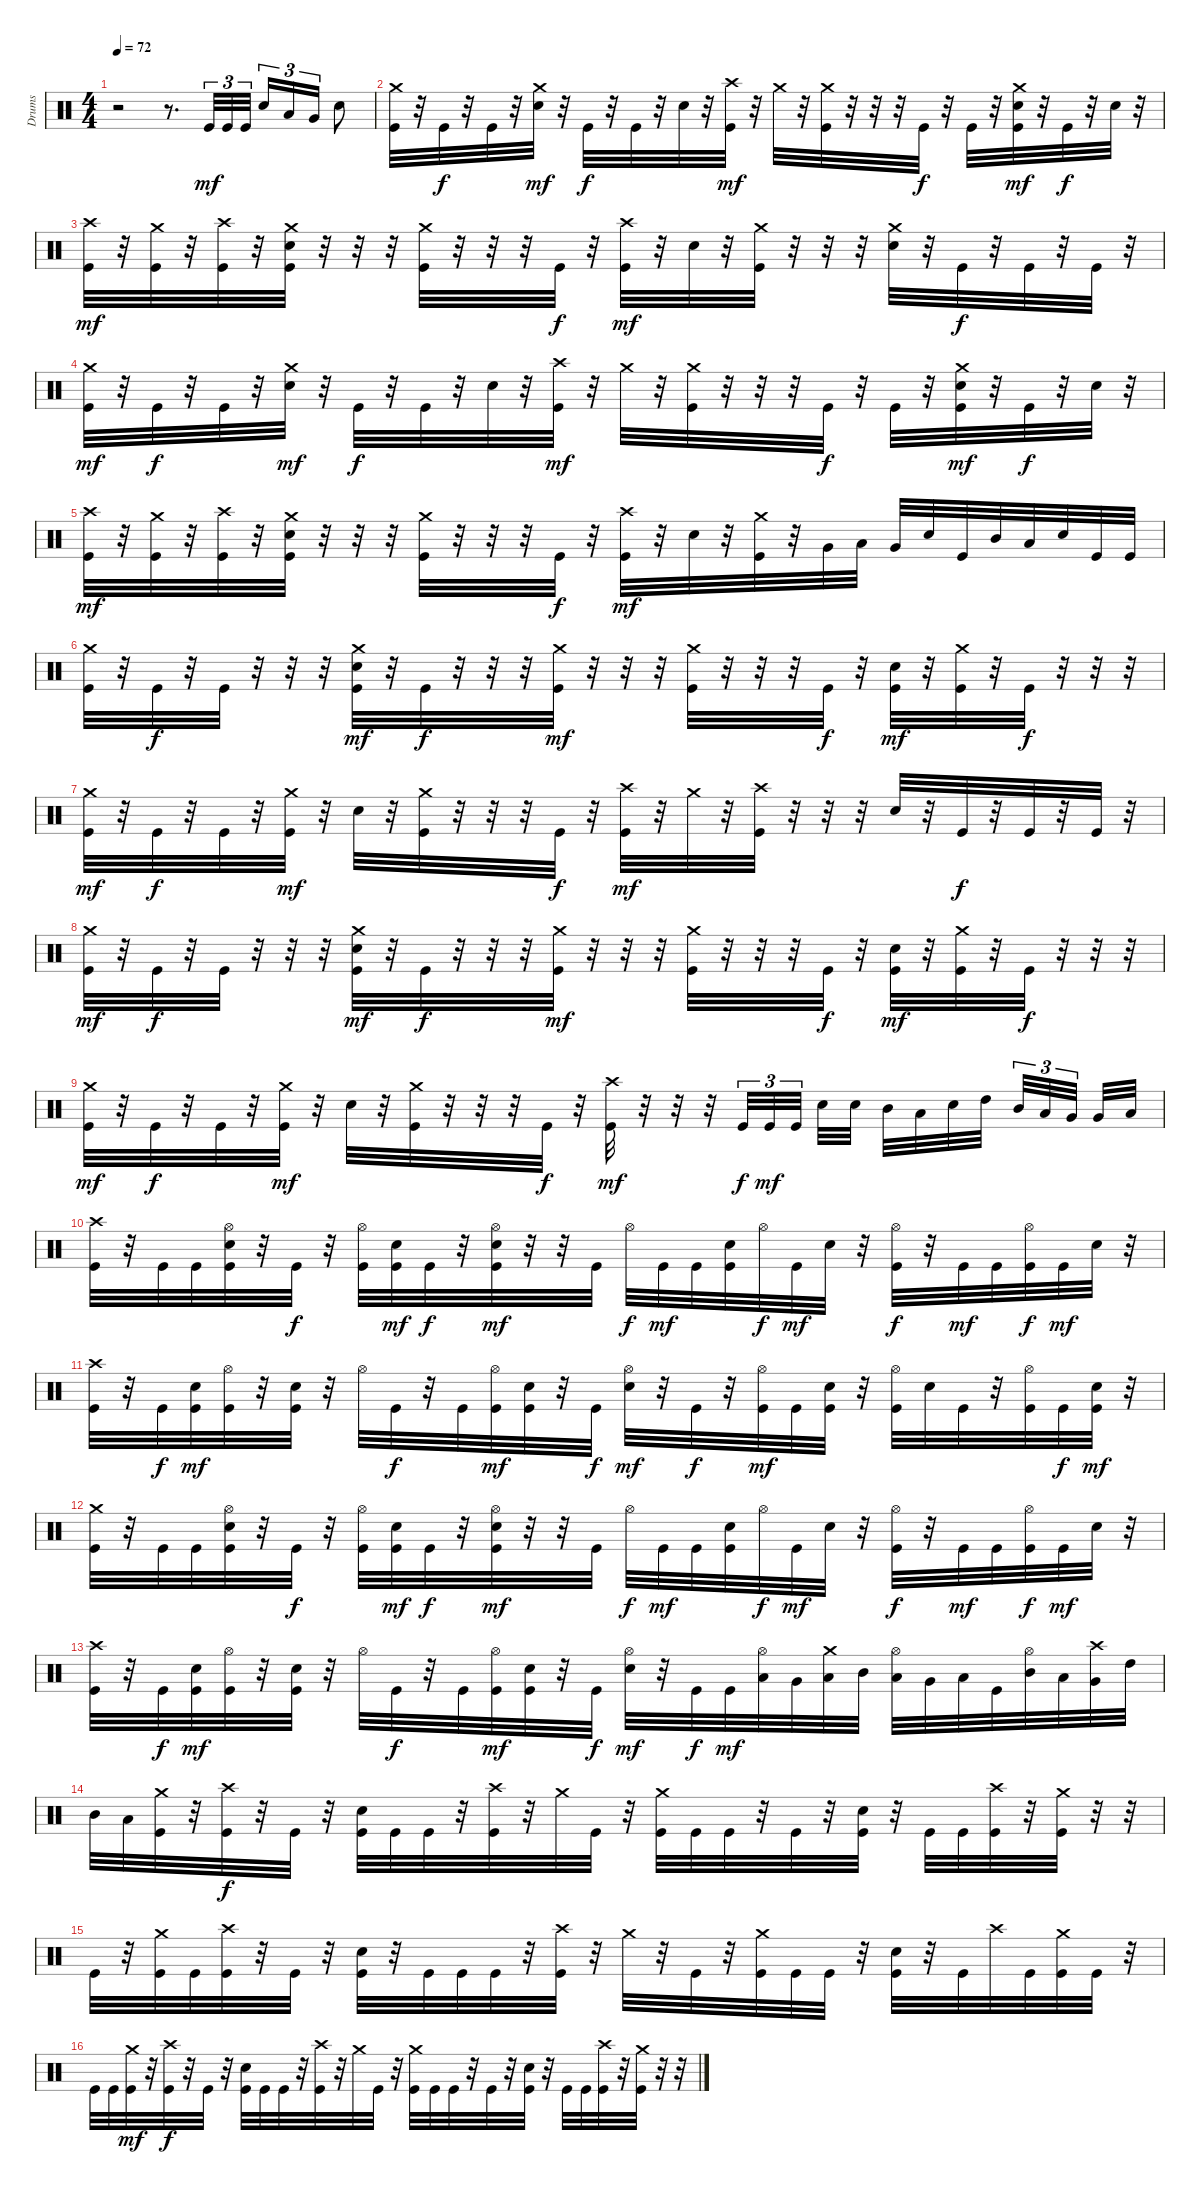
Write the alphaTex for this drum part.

\track ("Drums" "Drums") {instrument percussion}
\staff {score}
\articulation defaults
\ts (4 4)
\tempo 72
\clef neutral
\ks c
r.2{dy mf} r.8{d} "Kick (hit)".32{tu (3 2)} "Kick (hit)".32{tu (3 2)} "Kick (hit)".32{tu (3 2)} "Electric Snare (hit)".16{tu (3 2)} "Low Tom (hit)".16{tu (3 2)} "Very Low Tom (hit)".16{tu (3 2)} "Electric Snare (hit)".8 |
("Crash medium (hit)" "Kick (hit)").32 r.32 "Kick (hit)".32{dy f} r.32 "Kick (hit)".32 r.32 ("Crash medium (hit)" "Electric Snare (hit)").32{dy mf} r.32 "Kick (hit)".32{dy f} r.32 "Kick (hit)".32 r.32 "Electric Snare (hit)".32 r.32 ("Crash high (hit)" "Kick (hit)").32{dy mf} r.32 "Crash medium (hit)".32 r.32 ("Crash medium (hit)" "Kick (hit)").32 r.32 r.32 r.32 "Kick (hit)".32{dy f} r.32 "Kick (hit)".32 r.32 ("Crash medium (hit)" "Electric Snare (hit)" "Kick (hit)").32{dy mf} r.32 "Kick (hit)".32{dy f} r.32 "Electric Snare (hit)".32 r.32 |
("Crash high (hit)" "Kick (hit)").32{dy mf} r.32 ("Crash medium (hit)" "Kick (hit)").32 r.32 ("Crash high (hit)" "Kick (hit)").32 r.32 ("Crash medium (hit)" "Electric Snare (hit)" "Kick (hit)").32 r.32 r.32 r.32 ("Crash medium (hit)" "Kick (hit)").32 r.32 r.32 r.32 "Kick (hit)".32{dy f} r.32 ("Crash high (hit)" "Kick (hit)").32{dy mf} r.32 "Electric Snare (hit)".32 r.32 ("Crash medium (hit)" "Kick (hit)").32 r.32 r.32 r.32 ("Crash medium (hit)" "Electric Snare (hit)").32 r.32 "Kick (hit)".32{dy f} r.32 "Kick (hit)".32 r.32 "Kick (hit)".32 r.32 |
("Crash medium (hit)" "Kick (hit)").32{dy mf} r.32 "Kick (hit)".32{dy f} r.32 "Kick (hit)".32 r.32 ("Crash medium (hit)" "Electric Snare (hit)").32{dy mf} r.32 "Kick (hit)".32{dy f} r.32 "Kick (hit)".32 r.32 "Electric Snare (hit)".32 r.32 ("Crash high (hit)" "Kick (hit)").32{dy mf} r.32 "Crash medium (hit)".32 r.32 ("Crash medium (hit)" "Kick (hit)").32 r.32 r.32 r.32 "Kick (hit)".32{dy f} r.32 "Kick (hit)".32 r.32 ("Crash medium (hit)" "Electric Snare (hit)" "Kick (hit)").32{dy mf} r.32 "Kick (hit)".32{dy f} r.32 "Electric Snare (hit)".32 r.32 |
("Crash high (hit)" "Kick (hit)").32{dy mf} r.32 ("Crash medium (hit)" "Kick (hit)").32 r.32 ("Crash high (hit)" "Kick (hit)").32 r.32 ("Crash medium (hit)" "Electric Snare (hit)" "Kick (hit)").32 r.32 r.32 r.32 ("Crash medium (hit)" "Kick (hit)").32 r.32 r.32 r.32 "Kick (hit)".32{dy f} r.32 ("Crash high (hit)" "Kick (hit)").32{dy mf} r.32 "Electric Snare (hit)".32 r.32 ("Crash medium (hit)" "Kick (hit)").32 r.32 "Very Low Tom (hit)".32 "Low Tom (hit)".32 "Very Low Tom (hit)".32 "Electric Snare (hit)".32 "Kick (hit)".32 "Mid Tom (hit)".32 "Low Tom (hit)".32 "Electric Snare (hit)".32 "Kick (hit)".32 "Kick (hit)".32 |
("Crash medium (hit)" "Kick (hit)").32 r.32 "Kick (hit)".32{dy f} r.32 "Kick (hit)".32 r.32 r.32 r.32 ("Crash medium (hit)" "Electric Snare (hit)" "Kick (hit)").32{dy mf} r.32 "Kick (hit)".32{dy f} r.32 r.32 r.32 ("Crash medium (hit)" "Kick (hit)").32{dy mf} r.32 r.32 r.32 ("Crash medium (hit)" "Kick (hit)").32 r.32 r.32 r.32 "Kick (hit)".32{dy f} r.32 ("Electric Snare (hit)" "Kick (hit)").32{dy mf} r.32 ("Crash medium (hit)" "Kick (hit)").32 r.32 "Kick (hit)".32{dy f} r.32 r.32 r.32 |
("Crash medium (hit)" "Kick (hit)").32{dy mf} r.32 "Kick (hit)".32{dy f} r.32 "Kick (hit)".32 r.32 ("Crash medium (hit)" "Kick (hit)").32{dy mf} r.32 "Electric Snare (hit)".32 r.32 ("Crash medium (hit)" "Kick (hit)").32 r.32 r.32 r.32 "Kick (hit)".32{dy f} r.32 ("Crash high (hit)" "Kick (hit)").32{dy mf} r.32 "Crash medium (hit)".32 r.32 ("Crash high (hit)" "Kick (hit)").32 r.32 r.32 r.32 "Electric Snare (hit)".32 r.32 "Kick (hit)".32{dy f} r.32 "Kick (hit)".32 r.32 "Kick (hit)".32 r.32 |
("Crash medium (hit)" "Kick (hit)").32{dy mf} r.32 "Kick (hit)".32{dy f} r.32 "Kick (hit)".32 r.32 r.32 r.32 ("Crash medium (hit)" "Electric Snare (hit)" "Kick (hit)").32{dy mf} r.32 "Kick (hit)".32{dy f} r.32 r.32 r.32 ("Crash medium (hit)" "Kick (hit)").32{dy mf} r.32 r.32 r.32 ("Crash medium (hit)" "Kick (hit)").32 r.32 r.32 r.32 "Kick (hit)".32{dy f} r.32 ("Electric Snare (hit)" "Kick (hit)").32{dy mf} r.32 ("Crash medium (hit)" "Kick (hit)").32 r.32 "Kick (hit)".32{dy f} r.32 r.32 r.32 |
("Crash medium (hit)" "Kick (hit)").32{dy mf} r.32 "Kick (hit)".32{dy f} r.32 "Kick (hit)".32 r.32 ("Crash medium (hit)" "Kick (hit)").32{dy mf} r.32 "Electric Snare (hit)".32 r.32 ("Crash medium (hit)" "Kick (hit)").32 r.32 r.32 r.32 "Kick (hit)".32{dy f} r.32 ("Crash high (hit)" "Kick (hit)").32{dy mf} r.32 r.32 r.32 "Kick (hit)".32{tu (3 2) dy f} "Kick (hit)".32{tu (3 2) dy mf} "Kick (hit)".32{tu (3 2) beam splitsecondary} "Electric Snare (hit)".32 "Electric Snare (hit)".32 "Mid Tom (hit)".32 "Low Tom (hit)".32 "Electric Snare (hit)".32 "High Tom (hit)".32{beam splitsecondary} "Mid Tom (hit)".32{tu (3 2)} "Low Tom (hit)".32{tu (3 2)} "Very Low Tom (hit)".32{tu (3 2) beam splitsecondary} "Very Low Tom (hit)".32 "Low Tom (hit)".32 |
("Crash high (hit)" "Kick (hit)").32 r.32 "Kick (hit)".32 "Kick (hit)".32 ("Hi-Hat (open)" "Electric Snare (hit)" "Kick (hit)").32 r.32 "Kick (hit)".32{dy f} r.32 ("Hi-Hat (open)" "Kick (hit)").32 ("Electric Snare (hit)" "Kick (hit)").32{dy mf} "Kick (hit)".32{dy f} r.32 ("Hi-Hat (open)" "Electric Snare (hit)" "Kick (hit)").32{dy mf} r.32 r.32 "Kick (hit)".32 "Hi-Hat (open)".32{dy f} "Kick (hit)".32{dy mf} "Kick (hit)".32 ("Electric Snare (hit)" "Kick (hit)").32 "Hi-Hat (open)".32{dy f} "Kick (hit)".32{dy mf} "Electric Snare (hit)".32 r.32 ("Hi-Hat (open)" "Kick (hit)").32{dy f} r.32 "Kick (hit)".32{dy mf} "Kick (hit)".32 ("Hi-Hat (open)" "Kick (hit)").32{dy f} "Kick (hit)".32{dy mf} "Electric Snare (hit)".32 r.32 |
("Crash high (hit)" "Kick (hit)").32 r.32 "Kick (hit)".32{dy f} ("Electric Snare (hit)" "Kick (hit)").32{dy mf} ("Hi-Hat (open)" "Kick (hit)").32 r.32 ("Electric Snare (hit)" "Kick (hit)").32 r.32 "Hi-Hat (open)".32 "Kick (hit)".32{dy f} r.32 "Kick (hit)".32 ("Hi-Hat (open)" "Kick (hit)").32{dy mf} ("Electric Snare (hit)" "Kick (hit)").32 r.32 "Kick (hit)".32{dy f} ("Hi-Hat (open)" "Electric Snare (hit)").32{dy mf} r.32 "Kick (hit)".32{dy f} r.32 ("Hi-Hat (open)" "Kick (hit)").32{dy mf} "Kick (hit)".32 ("Electric Snare (hit)" "Kick (hit)").32 r.32 ("Hi-Hat (open)" "Kick (hit)").32 "Electric Snare (hit)".32 "Kick (hit)".32 r.32 ("Hi-Hat (open)" "Kick (hit)").32 "Kick (hit)".32{dy f} ("Electric Snare (hit)" "Kick (hit)").32{dy mf} r.32 |
("Crash medium (hit)" "Kick (hit)").32 r.32 "Kick (hit)".32 "Kick (hit)".32 ("Hi-Hat (open)" "Electric Snare (hit)" "Kick (hit)").32 r.32 "Kick (hit)".32{dy f} r.32 ("Hi-Hat (open)" "Kick (hit)").32 ("Electric Snare (hit)" "Kick (hit)").32{dy mf} "Kick (hit)".32{dy f} r.32 ("Hi-Hat (open)" "Electric Snare (hit)" "Kick (hit)").32{dy mf} r.32 r.32 "Kick (hit)".32 "Hi-Hat (open)".32{dy f} "Kick (hit)".32{dy mf} "Kick (hit)".32 ("Electric Snare (hit)" "Kick (hit)").32 "Hi-Hat (open)".32{dy f} "Kick (hit)".32{dy mf} "Electric Snare (hit)".32 r.32 ("Hi-Hat (open)" "Kick (hit)").32{dy f} r.32 "Kick (hit)".32{dy mf} "Kick (hit)".32 ("Hi-Hat (open)" "Kick (hit)").32{dy f} "Kick (hit)".32{dy mf} "Electric Snare (hit)".32 r.32 |
("Crash high (hit)" "Kick (hit)").32 r.32 "Kick (hit)".32{dy f} ("Electric Snare (hit)" "Kick (hit)").32{dy mf} ("Hi-Hat (open)" "Kick (hit)").32 r.32 ("Electric Snare (hit)" "Kick (hit)").32 r.32 "Hi-Hat (open)".32 "Kick (hit)".32{dy f} r.32 "Kick (hit)".32 ("Hi-Hat (open)" "Kick (hit)").32{dy mf} ("Electric Snare (hit)" "Kick (hit)").32 r.32 "Kick (hit)".32{dy f} ("Hi-Hat (open)" "Electric Snare (hit)").32{dy mf} r.32 "Kick (hit)".32{dy f} "Kick (hit)".32{dy mf} ("Hi-Hat (open)" "Low Tom (hit)").32 "Very Low Tom (hit)".32 ("Crash medium (hit)" "Low Floor Tom (hit)").32 "Mid Tom (hit)".32 ("Hi-Hat (open)" "Low Tom (hit)").32 "Very Low Tom (hit)".32 "Low Floor Tom (hit)".32 "Kick (hit)".32 ("Hi-Hat (open)" "Mid Tom (hit)").32 "Low Tom (hit)".32 ("Crash high (hit)" "Very Low Tom (hit)").32 "High Tom (hit)".32 |
"Mid Tom (hit)".32 "Low Tom (hit)".32 ("Crash medium (hit)" "Kick (hit)").32 r.32 ("Crash high (hit)" "Kick (hit)").32{dy f} r.32 "Kick (hit)".32 r.32 ("Electric Snare (hit)" "Kick (hit)").32 "Kick (hit)".32 "Kick (hit)".32 r.32 ("Crash high (hit)" "Kick (hit)").32 r.32 "Crash medium (hit)".32 "Kick (hit)".32 r.32 ("Crash medium (hit)" "Kick (hit)").32 "Kick (hit)".32 "Kick (hit)".32 r.32 "Kick (hit)".32 r.32 ("Electric Snare (hit)" "Kick (hit)").32 r.32 "Kick (hit)".32 "Kick (hit)".32 ("Crash high (hit)" "Kick (hit)").32 r.32 ("Crash medium (hit)" "Kick (hit)").32 r.32 r.32 |
"Kick (hit)".32 r.32 ("Crash medium (hit)" "Kick (hit)").32 "Kick (hit)".32 ("Crash high (hit)" "Kick (hit)").32 r.32 "Kick (hit)".32 r.32 ("Electric Snare (hit)" "Kick (hit)").32 r.32 "Kick (hit)".32 "Kick (hit)".32 "Kick (hit)".32 r.32 ("Crash high (hit)" "Kick (hit)").32 r.32 "Crash medium (hit)".32 r.32 "Kick (hit)".32 r.32 ("Crash medium (hit)" "Kick (hit)").32 "Kick (hit)".32 "Kick (hit)".32 r.32 ("Electric Snare (hit)" "Kick (hit)").32 r.32 "Kick (hit)".32 "Crash high (hit)".32 "Kick (hit)".32 ("Crash medium (hit)" "Kick (hit)").32 "Kick (hit)".32 r.32 |
"Kick (hit)".32 "Kick (hit)".32 ("Crash medium (hit)" "Kick (hit)").32{dy mf} r.32 ("Crash high (hit)" "Kick (hit)").32{dy f} r.32 "Kick (hit)".32 r.32 ("Electric Snare (hit)" "Kick (hit)").32 "Kick (hit)".32 "Kick (hit)".32 r.32 ("Crash high (hit)" "Kick (hit)").32 r.32 "Crash medium (hit)".32 "Kick (hit)".32 r.32 ("Crash medium (hit)" "Kick (hit)").32 "Kick (hit)".32 "Kick (hit)".32 r.32 "Kick (hit)".32 r.32 ("Electric Snare (hit)" "Kick (hit)").32 r.32 "Kick (hit)".32 "Kick (hit)".32 ("Crash high (hit)" "Kick (hit)").32 r.32 ("Crash medium (hit)" "Kick (hit)").32 r.32 r.32
